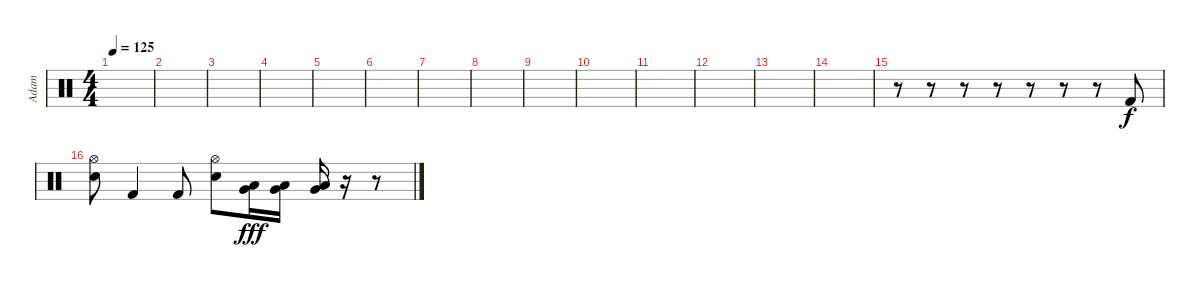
\track ("Adam" "Adam") {instrument percussion}
\staff {score}
\articulation defaults
\ts (4 4)
\tempo 125
\clef neutral
\ks c
|
|
|
|
|
|
|
|
|
|
|
|
|
|
r.8 r.8 r.8 r.8 r.8 r.8 r.8 "Kick (hit) 2".8 |
("Hi-Hat (open)" "Electric Snare (hit)").8 "Kick (hit) 2".4 "Kick (hit) 2".8 ("Hi-Hat (open)" "Electric Snare (hit)").8{dy f} ("Low Tom (hit)" "Very Low Tom (hit)").16{dy fff} ("Low Tom (hit)" "Very Low Tom (hit)").16 ("Very Low Tom (hit)" "Low Floor Tom (hit)").16 r.16 r.8
